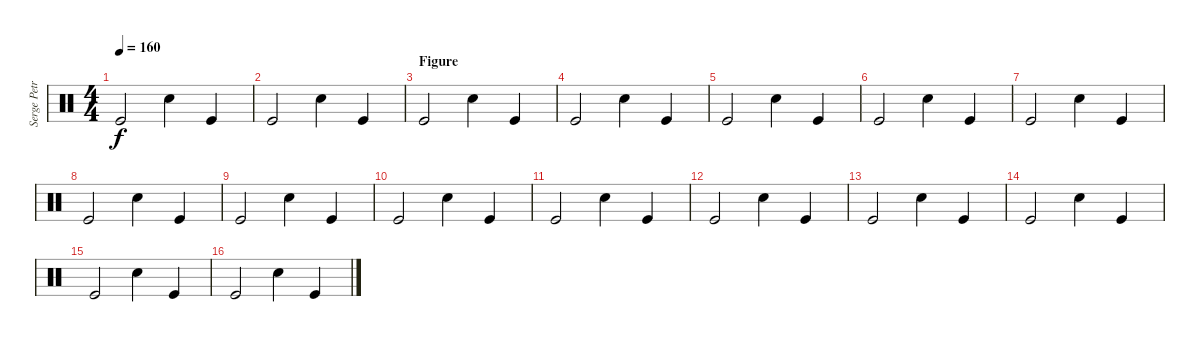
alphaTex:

\track ("Serge Petrone" "Serge Petr") {instrument percussion}
\staff {score}
\articulation defaults
\ts (4 4)
\tempo 160
\clef neutral
\ks c "Kick (hit)".2{dy f} "Snare (hit) 2".4 "Kick (hit)".4
|
"Kick (hit)".2 "Snare (hit) 2".4 "Kick (hit)".4 |
\section ("" "Figure")
"Kick (hit)".2 "Snare (hit) 2".4 "Kick (hit)".4 |
"Kick (hit)".2 "Snare (hit) 2".4 "Kick (hit)".4 |
"Kick (hit)".2 "Snare (hit) 2".4 "Kick (hit)".4 |
"Kick (hit)".2 "Snare (hit) 2".4 "Kick (hit)".4 |
"Kick (hit)".2 "Snare (hit) 2".4 "Kick (hit)".4 |
"Kick (hit)".2 "Snare (hit) 2".4 "Kick (hit)".4 |
"Kick (hit)".2 "Snare (hit) 2".4 "Kick (hit)".4 |
"Kick (hit)".2 "Snare (hit) 2".4 "Kick (hit)".4 |
"Kick (hit)".2 "Snare (hit) 2".4 "Kick (hit)".4 |
"Kick (hit)".2 "Snare (hit) 2".4 "Kick (hit)".4 |
"Kick (hit)".2 "Snare (hit) 2".4 "Kick (hit)".4 |
"Kick (hit)".2 "Snare (hit) 2".4 "Kick (hit)".4 |
"Kick (hit)".2 "Snare (hit) 2".4 "Kick (hit)".4 |
"Kick (hit)".2 "Snare (hit) 2".4 "Kick (hit)".4
